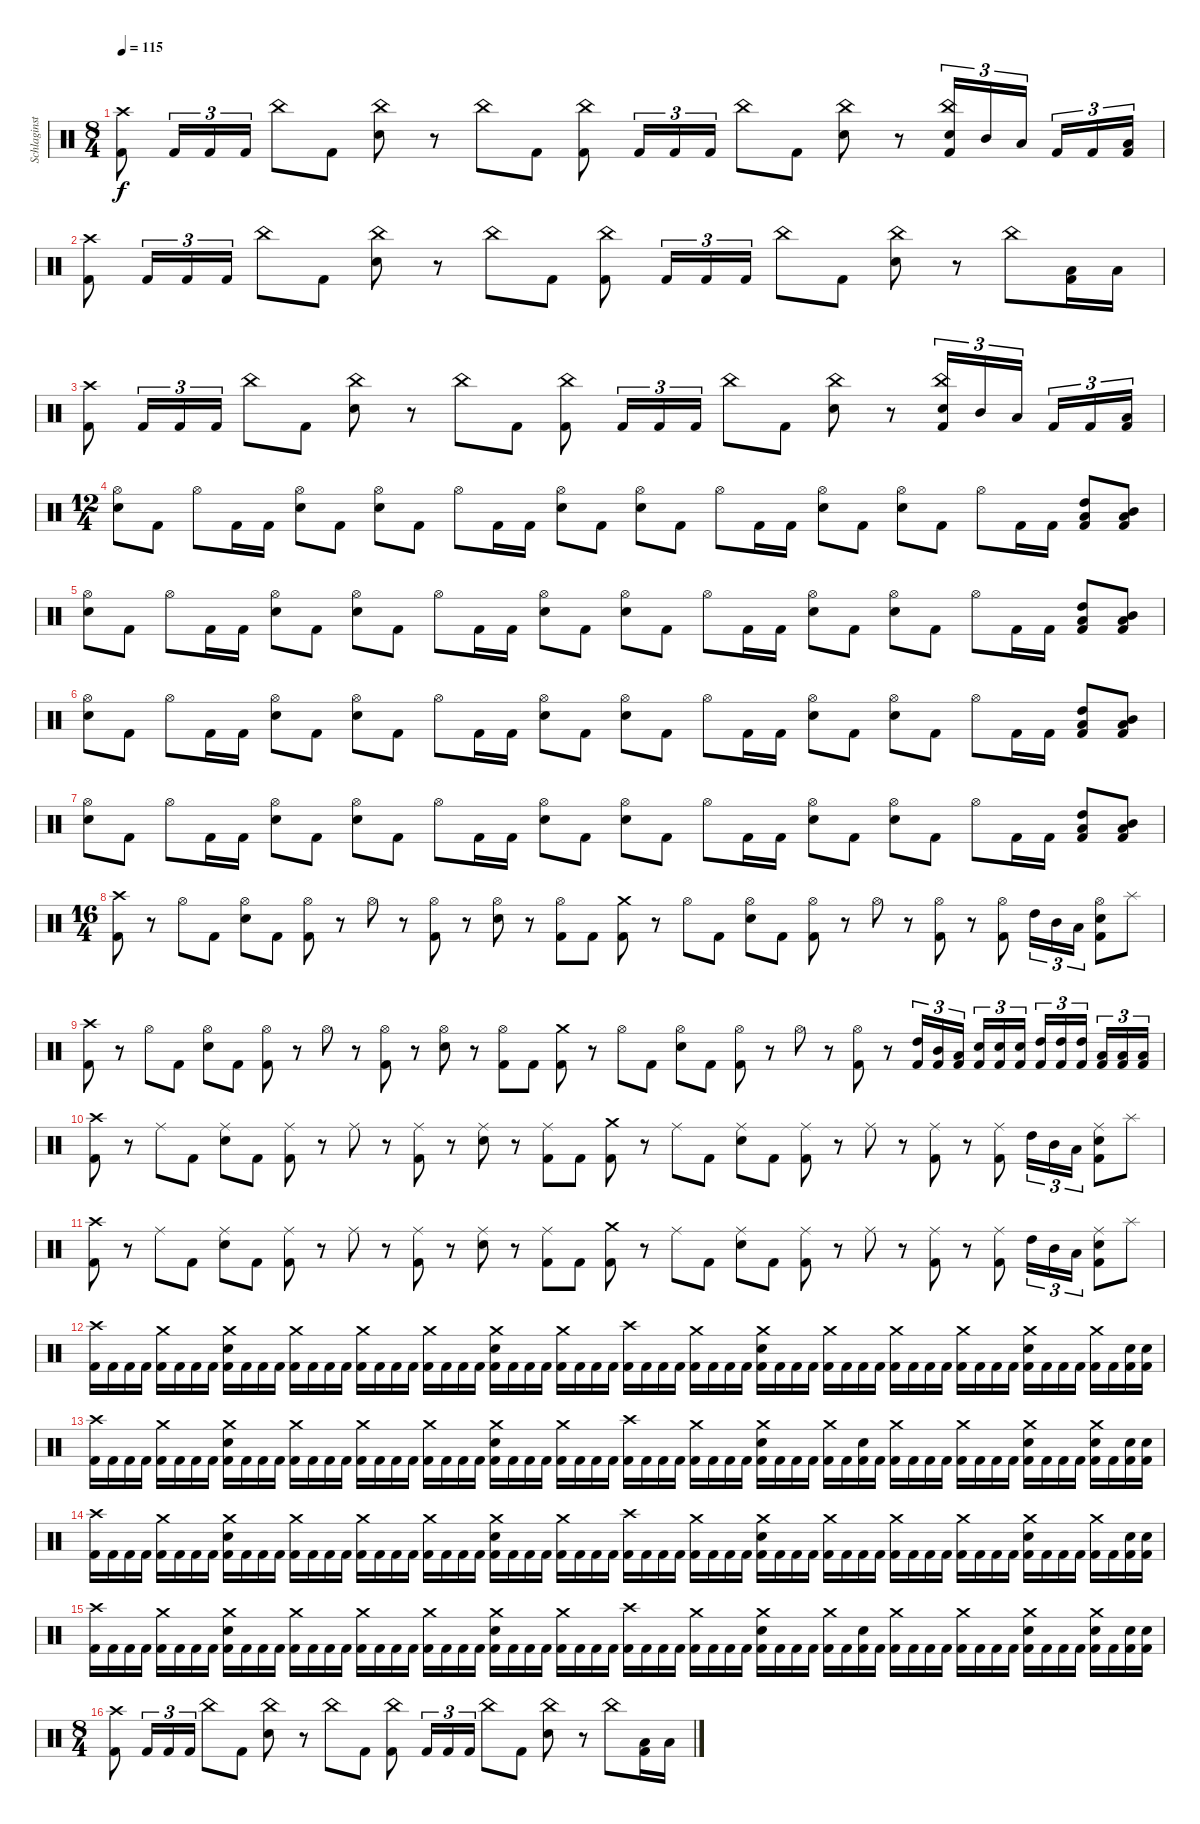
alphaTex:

\track ("Schlaginstrumente - Auswahl" "Schlaginst") {instrument percussion}
\staff {score}
\articulation defaults
\ts (8 4)
\tempo 115
\clef neutral
\ks c
("Crash high (hit)" "Kick (hit) 2").8{dy f} "Kick (hit) 2".16{tu (3 2)} "Kick (hit) 2".16{tu (3 2)} "Kick (hit) 2".16{tu (3 2)} "China (hit)".8 "Kick (hit) 2".8 ("China (hit)" "Snare (hit) 2").8 r.8 "China (hit)".8 "Kick (hit) 2".8 ("China (hit)" "Kick (hit) 2").8 "Kick (hit) 2".16{tu (3 2)} "Kick (hit) 2".16{tu (3 2)} "Kick (hit) 2".16{tu (3 2)} "China (hit)".8 "Kick (hit) 2".8 ("China (hit)" "Snare (hit) 2").8 r.8 ("China (hit)" "Snare (hit) 2" "Kick (hit) 2").16{tu (3 2)} "Mid Tom (hit)".16{tu (3 2)} "Low Tom (hit)".16{tu (3 2) beam splitsecondary} "Kick (hit) 2".16{tu (3 2)} "Kick (hit) 2".16{tu (3 2)} ("Low Tom (hit)" "Kick (hit) 2").16{tu (3 2)} |
("Crash high (hit)" "Kick (hit) 2").8 "Kick (hit) 2".16{tu (3 2)} "Kick (hit) 2".16{tu (3 2)} "Kick (hit) 2".16{tu (3 2)} "China (hit)".8 "Kick (hit) 2".8 ("China (hit)" "Snare (hit) 2").8 r.8 "China (hit)".8 "Kick (hit) 2".8 ("China (hit)" "Kick (hit) 2").8 "Kick (hit) 2".16{tu (3 2)} "Kick (hit) 2".16{tu (3 2)} "Kick (hit) 2".16{tu (3 2)} "China (hit)".8 "Kick (hit) 2".8 ("China (hit)" "Snare (hit) 2").8 r.8 "China (hit)".8 ("Low Tom (hit)" "Kick (hit) 2").16 "Low Tom (hit)".16 |
("Crash high (hit)" "Kick (hit) 2").8 "Kick (hit) 2".16{tu (3 2)} "Kick (hit) 2".16{tu (3 2)} "Kick (hit) 2".16{tu (3 2)} "China (hit)".8 "Kick (hit) 2".8 ("China (hit)" "Snare (hit) 2").8 r.8 "China (hit)".8 "Kick (hit) 2".8 ("China (hit)" "Kick (hit) 2").8 "Kick (hit) 2".16{tu (3 2)} "Kick (hit) 2".16{tu (3 2)} "Kick (hit) 2".16{tu (3 2)} "China (hit)".8 "Kick (hit) 2".8 ("China (hit)" "Snare (hit) 2").8 r.8 ("China (hit)" "Snare (hit) 2" "Kick (hit) 2").16{tu (3 2)} "Mid Tom (hit)".16{tu (3 2)} "Low Tom (hit)".16{tu (3 2) beam splitsecondary} "Kick (hit) 2".16{tu (3 2)} "Kick (hit) 2".16{tu (3 2)} ("Low Tom (hit)" "Kick (hit) 2").16{tu (3 2)} |
\ts (12 4)
("Hi-Hat (open)" "Snare (hit) 2").8 "Kick (hit) 2".8 "Hi-Hat (open)".8 "Kick (hit) 2".16 "Kick (hit) 2".16 ("Hi-Hat (open)" "Snare (hit) 2").8 "Kick (hit) 2".8 ("Hi-Hat (open)" "Snare (hit) 2").8 "Kick (hit) 2".8 "Hi-Hat (open)".8 "Kick (hit) 2".16 "Kick (hit) 2".16 ("Hi-Hat (open)" "Snare (hit) 2").8 "Kick (hit) 2".8 ("Hi-Hat (open)" "Snare (hit) 2").8 "Kick (hit) 2".8 "Hi-Hat (open)".8 "Kick (hit) 2".16 "Kick (hit) 2".16 ("Hi-Hat (open)" "Snare (hit) 2").8 "Kick (hit) 2".8 ("Hi-Hat (open)" "Snare (hit) 2").8 "Kick (hit) 2".8 "Hi-Hat (open)".8 "Kick (hit) 2".16 "Kick (hit) 2".16 ("High Tom (hit)" "Low Tom (hit)" "Kick (hit) 2").8 ("Mid Tom (hit)" "Low Tom (hit)" "Kick (hit) 2").8 |
("Hi-Hat (open)" "Snare (hit) 2").8 "Kick (hit) 2".8 "Hi-Hat (open)".8 "Kick (hit) 2".16 "Kick (hit) 2".16 ("Hi-Hat (open)" "Snare (hit) 2").8 "Kick (hit) 2".8 ("Hi-Hat (open)" "Snare (hit) 2").8 "Kick (hit) 2".8 "Hi-Hat (open)".8 "Kick (hit) 2".16 "Kick (hit) 2".16 ("Hi-Hat (open)" "Snare (hit) 2").8 "Kick (hit) 2".8 ("Hi-Hat (open)" "Snare (hit) 2").8 "Kick (hit) 2".8 "Hi-Hat (open)".8 "Kick (hit) 2".16 "Kick (hit) 2".16 ("Hi-Hat (open)" "Snare (hit) 2").8 "Kick (hit) 2".8 ("Hi-Hat (open)" "Snare (hit) 2").8 "Kick (hit) 2".8 "Hi-Hat (open)".8 "Kick (hit) 2".16 "Kick (hit) 2".16 ("High Tom (hit)" "Low Tom (hit)" "Kick (hit) 2").8 ("Mid Tom (hit)" "Low Tom (hit)" "Kick (hit) 2").8 |
("Hi-Hat (open)" "Snare (hit) 2").8 "Kick (hit) 2".8 "Hi-Hat (open)".8 "Kick (hit) 2".16 "Kick (hit) 2".16 ("Hi-Hat (open)" "Snare (hit) 2").8 "Kick (hit) 2".8 ("Hi-Hat (open)" "Snare (hit) 2").8 "Kick (hit) 2".8 "Hi-Hat (open)".8 "Kick (hit) 2".16 "Kick (hit) 2".16 ("Hi-Hat (open)" "Snare (hit) 2").8 "Kick (hit) 2".8 ("Hi-Hat (open)" "Snare (hit) 2").8 "Kick (hit) 2".8 "Hi-Hat (open)".8 "Kick (hit) 2".16 "Kick (hit) 2".16 ("Hi-Hat (open)" "Snare (hit) 2").8 "Kick (hit) 2".8 ("Hi-Hat (open)" "Snare (hit) 2").8 "Kick (hit) 2".8 "Hi-Hat (open)".8 "Kick (hit) 2".16 "Kick (hit) 2".16 ("High Tom (hit)" "Low Tom (hit)" "Kick (hit) 2").8 ("Mid Tom (hit)" "Low Tom (hit)" "Kick (hit) 2").8 |
("Hi-Hat (open)" "Snare (hit) 2").8 "Kick (hit) 2".8 "Hi-Hat (open)".8 "Kick (hit) 2".16 "Kick (hit) 2".16 ("Hi-Hat (open)" "Snare (hit) 2").8 "Kick (hit) 2".8 ("Hi-Hat (open)" "Snare (hit) 2").8 "Kick (hit) 2".8 "Hi-Hat (open)".8 "Kick (hit) 2".16 "Kick (hit) 2".16 ("Hi-Hat (open)" "Snare (hit) 2").8 "Kick (hit) 2".8 ("Hi-Hat (open)" "Snare (hit) 2").8 "Kick (hit) 2".8 "Hi-Hat (open)".8 "Kick (hit) 2".16 "Kick (hit) 2".16 ("Hi-Hat (open)" "Snare (hit) 2").8 "Kick (hit) 2".8 ("Hi-Hat (open)" "Snare (hit) 2").8 "Kick (hit) 2".8 "Hi-Hat (open)".8 "Kick (hit) 2".16 "Kick (hit) 2".16 ("High Tom (hit)" "Low Tom (hit)" "Kick (hit) 2").8 ("Mid Tom (hit)" "Low Tom (hit)" "Kick (hit) 2").8 |
\ts (16 4)
("Crash high (hit)" "Kick (hit) 2").8 r.8 "Hi-Hat (open)".8 "Kick (hit) 2".8 ("Hi-Hat (open)" "Snare (hit) 2").8 "Kick (hit) 2".8 ("Hi-Hat (open)" "Kick (hit) 2").8 r.8 "Hi-Hat (open)".8 r.8 ("Hi-Hat (open)" "Kick (hit) 2").8 r.8 ("Hi-Hat (open)" "Snare (hit) 2").8 r.8 ("Hi-Hat (open)" "Kick (hit) 2").8 "Kick (hit) 2".8 ("Crash medium (hit)" "Kick (hit) 2").8 r.8 "Hi-Hat (open)".8 "Kick (hit) 2".8 ("Hi-Hat (open)" "Snare (hit) 2").8 "Kick (hit) 2".8 ("Hi-Hat (open)" "Kick (hit) 2").8 r.8 "Hi-Hat (open)".8 r.8 ("Hi-Hat (open)" "Kick (hit) 2").8 r.8 ("Hi-Hat (open)" "Kick (hit) 2").8 "High Tom (hit)".16{tu (3 2)} "Mid Tom (hit)".16{tu (3 2)} "Low Tom (hit)".16{tu (3 2)} ("Hi-Hat (open)" "Snare (hit) 2" "Kick (hit) 2").8 "Splash (hit)".8 |
("Crash high (hit)" "Kick (hit) 2").8 r.8 "Hi-Hat (open)".8 "Kick (hit) 2".8 ("Hi-Hat (open)" "Snare (hit) 2").8 "Kick (hit) 2".8 ("Hi-Hat (open)" "Kick (hit) 2").8 r.8 "Hi-Hat (open)".8 r.8 ("Hi-Hat (open)" "Kick (hit) 2").8 r.8 ("Hi-Hat (open)" "Snare (hit) 2").8 r.8 ("Hi-Hat (open)" "Kick (hit) 2").8 "Kick (hit) 2".8 ("Crash medium (hit)" "Kick (hit) 2").8 r.8 "Hi-Hat (open)".8 "Kick (hit) 2".8 ("Hi-Hat (open)" "Snare (hit) 2").8 "Kick (hit) 2".8 ("Hi-Hat (open)" "Kick (hit) 2").8 r.8 "Hi-Hat (open)".8 r.8 ("Hi-Hat (open)" "Kick (hit) 2").8 r.8 ("High Tom (hit)" "Kick (hit) 2").16{tu (3 2)} ("Mid Tom (hit)" "Kick (hit) 2").16{tu (3 2)} ("Low Tom (hit)" "Kick (hit) 2").16{tu (3 2) beam splitsecondary} ("Snare (hit) 2" "Kick (hit) 2").16{tu (3 2)} ("Snare (hit) 2" "Kick (hit) 2").16{tu (3 2)} ("Snare (hit) 2" "Kick (hit) 2").16{tu (3 2)} ("High Tom (hit)" "Kick (hit) 2").16{tu (3 2)} ("High Tom (hit)" "Kick (hit) 2").16{tu (3 2)} ("High Tom (hit)" "Kick (hit) 2").16{tu (3 2) beam splitsecondary} ("Low Tom (hit)" "Kick (hit) 2").16{tu (3 2)} ("Low Tom (hit)" "Kick (hit) 2").16{tu (3 2)} ("Low Tom (hit)" "Kick (hit) 2").16{tu (3 2)} |
("Crash high (hit)" "Kick (hit) 2").8 r.8 "Ride (middle)".8 "Kick (hit) 2".8 ("Ride (middle)" "Snare (hit) 2").8 "Kick (hit) 2".8 ("Ride (middle)" "Kick (hit) 2").8 r.8 "Ride (middle)".8 r.8 ("Ride (middle)" "Kick (hit) 2").8 r.8 ("Ride (middle)" "Snare (hit) 2").8 r.8 ("Ride (middle)" "Kick (hit) 2").8 "Kick (hit) 2".8 ("Crash medium (hit)" "Kick (hit) 2").8 r.8 "Ride (middle)".8 "Kick (hit) 2".8 ("Ride (middle)" "Snare (hit) 2").8 "Kick (hit) 2".8 ("Ride (middle)" "Kick (hit) 2").8 r.8 "Ride (middle)".8 r.8 ("Ride (middle)" "Kick (hit) 2").8 r.8 ("Ride (middle)" "Kick (hit) 2").8 "High Tom (hit)".16{tu (3 2)} "Mid Tom (hit)".16{tu (3 2)} "Low Tom (hit)".16{tu (3 2)} ("Ride (middle)" "Snare (hit) 2" "Kick (hit) 2").8 "Splash (hit)".8 |
("Crash high (hit)" "Kick (hit) 2").8 r.8 "Ride (middle)".8 "Kick (hit) 2".8 ("Ride (middle)" "Snare (hit) 2").8 "Kick (hit) 2".8 ("Ride (middle)" "Kick (hit) 2").8 r.8 "Ride (middle)".8 r.8 ("Ride (middle)" "Kick (hit) 2").8 r.8 ("Ride (middle)" "Snare (hit) 2").8 r.8 ("Ride (middle)" "Kick (hit) 2").8 "Kick (hit) 2".8 ("Crash medium (hit)" "Kick (hit) 2").8 r.8 "Ride (middle)".8 "Kick (hit) 2".8 ("Ride (middle)" "Snare (hit) 2").8 "Kick (hit) 2".8 ("Ride (middle)" "Kick (hit) 2").8 r.8 "Ride (middle)".8 r.8 ("Ride (middle)" "Kick (hit) 2").8 r.8 ("Ride (middle)" "Kick (hit) 2").8 "High Tom (hit)".16{tu (3 2)} "Mid Tom (hit)".16{tu (3 2)} "Low Tom (hit)".16{tu (3 2)} ("Ride (middle)" "Snare (hit) 2" "Kick (hit) 2").8 "Splash (hit)".8 |
("Crash high (hit)" "Kick (hit) 2").16 "Kick (hit) 2".16 "Kick (hit) 2".16 "Kick (hit) 2".16 ("Crash medium (hit)" "Kick (hit) 2").16 "Kick (hit) 2".16 "Kick (hit) 2".16 "Kick (hit) 2".16 ("Crash medium (hit)" "Snare (hit) 2" "Kick (hit) 2").16 "Kick (hit) 2".16 "Kick (hit) 2".16 "Kick (hit) 2".16 ("Crash medium (hit)" "Kick (hit) 2").16 "Kick (hit) 2".16 "Kick (hit) 2".16 "Kick (hit) 2".16 ("Crash medium (hit)" "Kick (hit) 2").16 "Kick (hit) 2".16 "Kick (hit) 2".16 "Kick (hit) 2".16 ("Crash medium (hit)" "Kick (hit) 2").16 "Kick (hit) 2".16 "Kick (hit) 2".16 "Kick (hit) 2".16 ("Crash medium (hit)" "Snare (hit) 2" "Kick (hit) 2").16 "Kick (hit) 2".16 "Kick (hit) 2".16 "Kick (hit) 2".16 ("Crash medium (hit)" "Kick (hit) 2").16 "Kick (hit) 2".16 "Kick (hit) 2".16 "Kick (hit) 2".16 ("Crash high (hit)" "Kick (hit) 2").16 "Kick (hit) 2".16 "Kick (hit) 2".16 "Kick (hit) 2".16 ("Crash medium (hit)" "Kick (hit) 2").16 "Kick (hit) 2".16 "Kick (hit) 2".16 "Kick (hit) 2".16 ("Crash medium (hit)" "Snare (hit) 2" "Kick (hit) 2").16 "Kick (hit) 2".16 "Kick (hit) 2".16 "Kick (hit) 2".16 ("Crash medium (hit)" "Kick (hit) 2").16 "Kick (hit) 2".16 "Kick (hit) 2".16 "Kick (hit) 2".16 ("Crash medium (hit)" "Kick (hit) 2").16 "Kick (hit) 2".16 "Kick (hit) 2".16 "Kick (hit) 2".16 ("Crash medium (hit)" "Kick (hit) 2").16 "Kick (hit) 2".16 "Kick (hit) 2".16 "Kick (hit) 2".16 ("Crash medium (hit)" "Snare (hit) 2" "Kick (hit) 2").16 "Kick (hit) 2".16 "Kick (hit) 2".16 "Kick (hit) 2".16 ("Crash medium (hit)" "Kick (hit) 2").16 "Kick (hit) 2".16 ("Snare (hit) 2" "Kick (hit) 2").16 ("Snare (hit) 2" "Kick (hit) 2").16 |
("Crash high (hit)" "Kick (hit) 2").16 "Kick (hit) 2".16 "Kick (hit) 2".16 "Kick (hit) 2".16 ("Crash medium (hit)" "Kick (hit) 2").16 "Kick (hit) 2".16 "Kick (hit) 2".16 "Kick (hit) 2".16 ("Crash medium (hit)" "Snare (hit) 2" "Kick (hit) 2").16 "Kick (hit) 2".16 "Kick (hit) 2".16 "Kick (hit) 2".16 ("Crash medium (hit)" "Kick (hit) 2").16 "Kick (hit) 2".16 "Kick (hit) 2".16 "Kick (hit) 2".16 ("Crash medium (hit)" "Kick (hit) 2").16 "Kick (hit) 2".16 "Kick (hit) 2".16 "Kick (hit) 2".16 ("Crash medium (hit)" "Kick (hit) 2").16 "Kick (hit) 2".16 "Kick (hit) 2".16 "Kick (hit) 2".16 ("Crash medium (hit)" "Snare (hit) 2" "Kick (hit) 2").16 "Kick (hit) 2".16 "Kick (hit) 2".16 "Kick (hit) 2".16 ("Crash medium (hit)" "Kick (hit) 2").16 "Kick (hit) 2".16 "Kick (hit) 2".16 "Kick (hit) 2".16 ("Crash high (hit)" "Kick (hit) 2").16 "Kick (hit) 2".16 "Kick (hit) 2".16 "Kick (hit) 2".16 ("Crash medium (hit)" "Kick (hit) 2").16 "Kick (hit) 2".16 "Kick (hit) 2".16 "Kick (hit) 2".16 ("Crash medium (hit)" "Snare (hit) 2" "Kick (hit) 2").16 "Kick (hit) 2".16 "Kick (hit) 2".16 "Kick (hit) 2".16 ("Crash medium (hit)" "Kick (hit) 2").16 "Kick (hit) 2".16 ("Snare (hit) 2" "Kick (hit) 2").16 "Kick (hit) 2".16 ("Crash medium (hit)" "Kick (hit) 2").16 "Kick (hit) 2".16 "Kick (hit) 2".16 "Kick (hit) 2".16 ("Crash medium (hit)" "Kick (hit) 2").16 "Kick (hit) 2".16 "Kick (hit) 2".16 "Kick (hit) 2".16 ("Crash medium (hit)" "Snare (hit) 2" "Kick (hit) 2").16 "Kick (hit) 2".16 "Kick (hit) 2".16 "Kick (hit) 2".16 ("Crash medium (hit)" "Snare (hit) 2" "Kick (hit) 2").16 "Kick (hit) 2".16 ("Snare (hit) 2" "Kick (hit) 2").16 ("Snare (hit) 2" "Kick (hit) 2").16 |
("Crash high (hit)" "Kick (hit) 2").16 "Kick (hit) 2".16 "Kick (hit) 2".16 "Kick (hit) 2".16 ("Crash medium (hit)" "Kick (hit) 2").16 "Kick (hit) 2".16 "Kick (hit) 2".16 "Kick (hit) 2".16 ("Crash medium (hit)" "Snare (hit) 2" "Kick (hit) 2").16 "Kick (hit) 2".16 "Kick (hit) 2".16 "Kick (hit) 2".16 ("Crash medium (hit)" "Kick (hit) 2").16 "Kick (hit) 2".16 "Kick (hit) 2".16 "Kick (hit) 2".16 ("Crash medium (hit)" "Kick (hit) 2").16 "Kick (hit) 2".16 "Kick (hit) 2".16 "Kick (hit) 2".16 ("Crash medium (hit)" "Kick (hit) 2").16 "Kick (hit) 2".16 "Kick (hit) 2".16 "Kick (hit) 2".16 ("Crash medium (hit)" "Snare (hit) 2" "Kick (hit) 2").16 "Kick (hit) 2".16 "Kick (hit) 2".16 "Kick (hit) 2".16 ("Crash medium (hit)" "Kick (hit) 2").16 "Kick (hit) 2".16 "Kick (hit) 2".16 "Kick (hit) 2".16 ("Crash high (hit)" "Kick (hit) 2").16 "Kick (hit) 2".16 "Kick (hit) 2".16 "Kick (hit) 2".16 ("Crash medium (hit)" "Kick (hit) 2").16 "Kick (hit) 2".16 "Kick (hit) 2".16 "Kick (hit) 2".16 ("Crash medium (hit)" "Snare (hit) 2" "Kick (hit) 2").16 "Kick (hit) 2".16 "Kick (hit) 2".16 "Kick (hit) 2".16 ("Crash medium (hit)" "Kick (hit) 2").16 "Kick (hit) 2".16 "Kick (hit) 2".16 "Kick (hit) 2".16 ("Crash medium (hit)" "Kick (hit) 2").16 "Kick (hit) 2".16 "Kick (hit) 2".16 "Kick (hit) 2".16 ("Crash medium (hit)" "Kick (hit) 2").16 "Kick (hit) 2".16 "Kick (hit) 2".16 "Kick (hit) 2".16 ("Crash medium (hit)" "Snare (hit) 2" "Kick (hit) 2").16 "Kick (hit) 2".16 "Kick (hit) 2".16 "Kick (hit) 2".16 ("Crash medium (hit)" "Kick (hit) 2").16 "Kick (hit) 2".16 ("Snare (hit) 2" "Kick (hit) 2").16 ("Snare (hit) 2" "Kick (hit) 2").16 |
("Crash high (hit)" "Kick (hit) 2").16 "Kick (hit) 2".16 "Kick (hit) 2".16 "Kick (hit) 2".16 ("Crash medium (hit)" "Kick (hit) 2").16 "Kick (hit) 2".16 "Kick (hit) 2".16 "Kick (hit) 2".16 ("Crash medium (hit)" "Snare (hit) 2" "Kick (hit) 2").16 "Kick (hit) 2".16 "Kick (hit) 2".16 "Kick (hit) 2".16 ("Crash medium (hit)" "Kick (hit) 2").16 "Kick (hit) 2".16 "Kick (hit) 2".16 "Kick (hit) 2".16 ("Crash medium (hit)" "Kick (hit) 2").16 "Kick (hit) 2".16 "Kick (hit) 2".16 "Kick (hit) 2".16 ("Crash medium (hit)" "Kick (hit) 2").16 "Kick (hit) 2".16 "Kick (hit) 2".16 "Kick (hit) 2".16 ("Crash medium (hit)" "Snare (hit) 2" "Kick (hit) 2").16 "Kick (hit) 2".16 "Kick (hit) 2".16 "Kick (hit) 2".16 ("Crash medium (hit)" "Kick (hit) 2").16 "Kick (hit) 2".16 "Kick (hit) 2".16 "Kick (hit) 2".16 ("Crash high (hit)" "Kick (hit) 2").16 "Kick (hit) 2".16 "Kick (hit) 2".16 "Kick (hit) 2".16 ("Crash medium (hit)" "Kick (hit) 2").16 "Kick (hit) 2".16 "Kick (hit) 2".16 "Kick (hit) 2".16 ("Crash medium (hit)" "Snare (hit) 2" "Kick (hit) 2").16 "Kick (hit) 2".16 "Kick (hit) 2".16 "Kick (hit) 2".16 ("Crash medium (hit)" "Kick (hit) 2").16 "Kick (hit) 2".16 ("Snare (hit) 2" "Kick (hit) 2").16 "Kick (hit) 2".16 ("Crash medium (hit)" "Kick (hit) 2").16 "Kick (hit) 2".16 "Kick (hit) 2".16 "Kick (hit) 2".16 ("Crash medium (hit)" "Kick (hit) 2").16 "Kick (hit) 2".16 "Kick (hit) 2".16 "Kick (hit) 2".16 ("Crash medium (hit)" "Snare (hit) 2" "Kick (hit) 2").16 "Kick (hit) 2".16 "Kick (hit) 2".16 "Kick (hit) 2".16 ("Crash medium (hit)" "Snare (hit) 2" "Kick (hit) 2").16 "Kick (hit) 2".16 ("Snare (hit) 2" "Kick (hit) 2").16 ("Snare (hit) 2" "Kick (hit) 2").16 |
\ts (8 4)
("Crash high (hit)" "Kick (hit) 2").8 "Kick (hit) 2".16{tu (3 2)} "Kick (hit) 2".16{tu (3 2)} "Kick (hit) 2".16{tu (3 2)} "China (hit)".8 "Kick (hit) 2".8 ("China (hit)" "Snare (hit) 2").8 r.8 "China (hit)".8 "Kick (hit) 2".8 ("China (hit)" "Kick (hit) 2").8 "Kick (hit) 2".16{tu (3 2)} "Kick (hit) 2".16{tu (3 2)} "Kick (hit) 2".16{tu (3 2)} "China (hit)".8 "Kick (hit) 2".8 ("China (hit)" "Snare (hit) 2").8 r.8 "China (hit)".8 ("Low Tom (hit)" "Kick (hit) 2").16 "Low Tom (hit)".16
